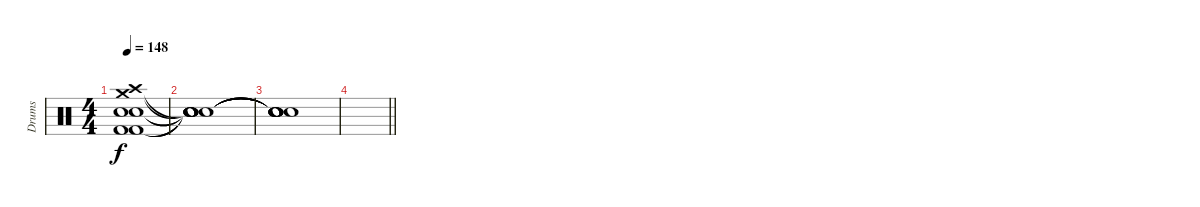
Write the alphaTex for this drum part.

\track ("Drums" "Drums") {instrument percussion}
\staff {score}
\articulation defaults
\ts (4 4)
\tempo 148
\clef neutral
\ks c
("Kick (hit) 2" "Crash medium (hit)" "Crash high (hit)" "Snare (hit) 2" "Snare (hit) 2" "Kick (hit) 2").1{dy f} |
("Snare (hit)"{t} "Snare (hit)"{t} "Snare (hit)"{t} "Snare (hit)"{t} "Snare (hit)"{t} "Snare (hit)"{t}).1 |
("Snare (hit)"{t} "Snare (hit)"{t} "Snare (hit)"{t} "Snare (hit)"{t} "Snare (hit)"{t} "Snare (hit)"{t}).1 |
\barLineRight lightlight
